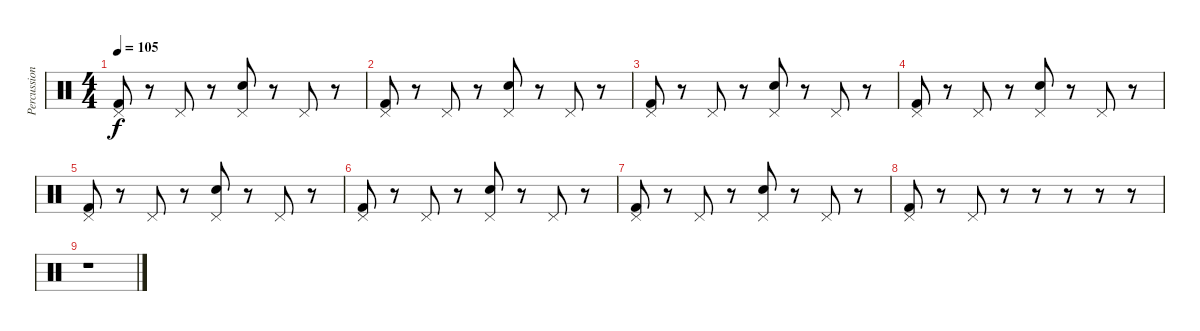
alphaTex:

\track ("Percussion" "Percussion") {instrument percussion}
\staff {score}
\articulation defaults
\ts (4 4)
\tempo 105
\clef neutral
\ks c
("Pedal Hi-Hat (hit)" "Kick (hit) 2").8{dy f} r.8 "Pedal Hi-Hat (hit)".8 r.8 ("Pedal Hi-Hat (hit)" "Snare (hit) 2").8 r.8 "Pedal Hi-Hat (hit)".8 r.8 |
("Pedal Hi-Hat (hit)" "Kick (hit) 2").8 r.8 "Pedal Hi-Hat (hit)".8 r.8 ("Pedal Hi-Hat (hit)" "Snare (hit) 2").8 r.8 "Pedal Hi-Hat (hit)".8 r.8 |
("Pedal Hi-Hat (hit)" "Kick (hit) 2").8 r.8 "Pedal Hi-Hat (hit)".8 r.8 ("Pedal Hi-Hat (hit)" "Snare (hit) 2").8 r.8 "Pedal Hi-Hat (hit)".8 r.8 |
("Pedal Hi-Hat (hit)" "Kick (hit) 2").8 r.8 "Pedal Hi-Hat (hit)".8 r.8 ("Pedal Hi-Hat (hit)" "Snare (hit) 2").8 r.8 "Pedal Hi-Hat (hit)".8 r.8 |
("Pedal Hi-Hat (hit)" "Kick (hit) 2").8 r.8 "Pedal Hi-Hat (hit)".8 r.8 ("Pedal Hi-Hat (hit)" "Snare (hit) 2").8 r.8 "Pedal Hi-Hat (hit)".8 r.8 |
("Pedal Hi-Hat (hit)" "Kick (hit) 2").8 r.8 "Pedal Hi-Hat (hit)".8 r.8 ("Pedal Hi-Hat (hit)" "Snare (hit) 2").8 r.8 "Pedal Hi-Hat (hit)".8 r.8 |
("Pedal Hi-Hat (hit)" "Kick (hit) 2").8 r.8 "Pedal Hi-Hat (hit)".8 r.8 ("Pedal Hi-Hat (hit)" "Snare (hit) 2").8 r.8 "Pedal Hi-Hat (hit)".8 r.8 |
("Pedal Hi-Hat (hit)" "Kick (hit) 2").8 r.8 "Pedal Hi-Hat (hit)".8 r.8 r.8 r.8 r.8 r.8 |
r.1
